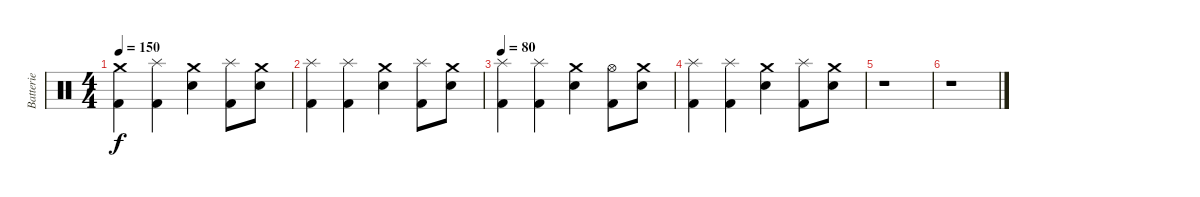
\track ("Batterie" "Batterie") {instrument percussion}
\staff {score}
\articulation defaults
\ts (4 4)
\tempo 150
\clef neutral
\ks c
("Crash medium (hit)" "Kick (hit) 2").4{dy f} ("Splash (hit)" "Kick (hit) 2").4 ("Crash medium (hit)" "Snare (hit) 2").4 ("Splash (hit)" "Kick (hit) 2").8 ("Crash medium (hit)" "Snare (hit) 2").8 |
("Splash (hit)" "Kick (hit) 2").4 ("Splash (hit)" "Kick (hit) 2").4 ("Crash medium (hit)" "Snare (hit) 2").4 ("Splash (hit)" "Kick (hit) 2").8 ("Crash medium (hit)" "Snare (hit) 2").8 |
\tempo 80
("Splash (hit)" "Kick (hit) 2").4 ("Splash (hit)" "Kick (hit) 2").4 ("Crash medium (hit)" "Snare (hit) 2").4 ("Hi-Hat (open)" "Kick (hit) 2").8 ("Crash medium (hit)" "Snare (hit) 2").8 |
("Splash (hit)" "Kick (hit) 2").4 ("Splash (hit)" "Kick (hit) 2").4 ("Crash medium (hit)" "Snare (hit) 2").4 ("Splash (hit)" "Kick (hit) 2").8 ("Crash medium (hit)" "Snare (hit) 2").8 |
r.1 |
r.1
